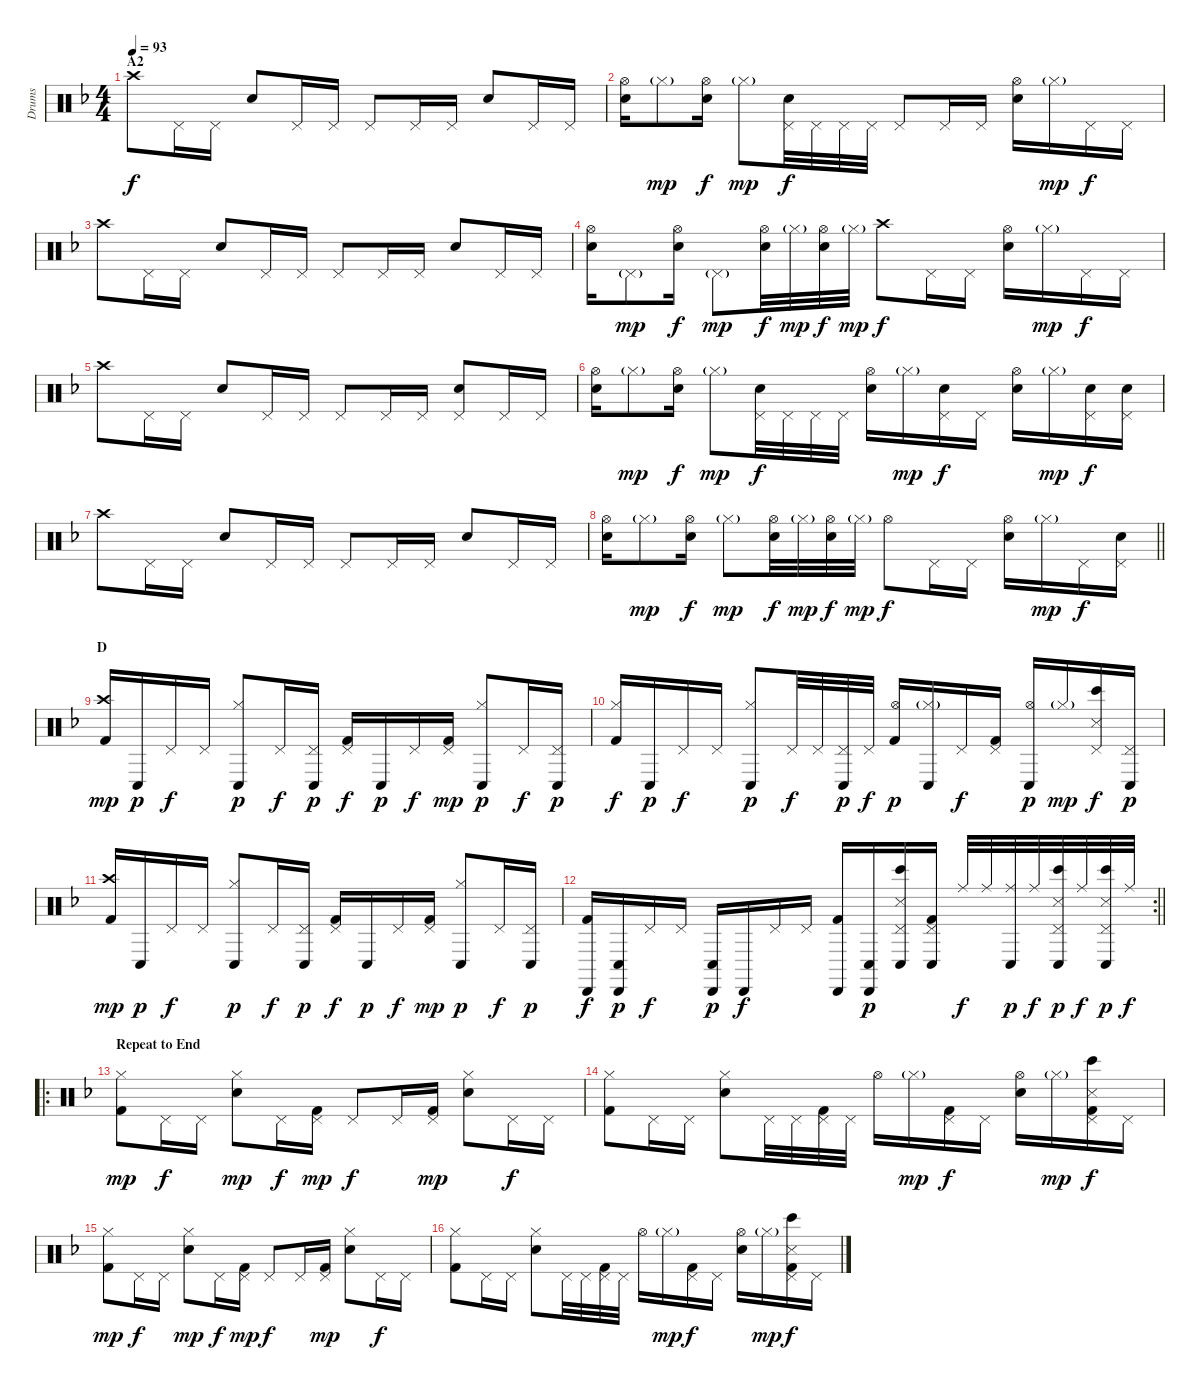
\track ("Drums" "Drums") {instrument percussion}
\staff {score}
\articulation defaults
\ts (4 4)
\section ("" "A2")
\tempo 93
\clef neutral
\ks f "Crash high (hit)".8{dy f} "Pedal Hi-Hat (hit)".16 "Pedal Hi-Hat (hit)".16 "Electric Snare (hit)".8 "Pedal Hi-Hat (hit)".16 "Pedal Hi-Hat (hit)".16 "Pedal Hi-Hat (hit)".8 "Pedal Hi-Hat (hit)".16 "Pedal Hi-Hat (hit)".16 "Electric Snare (hit)".8 "Pedal Hi-Hat (hit)".16 "Pedal Hi-Hat (hit)".16
|
("Hi-Hat (open)" "Electric Snare (hit)").16 "Hi-Hat (closed)"{g}.8{dy mp} ("Hi-Hat (open)" "Electric Snare (hit)").16{dy f} "Hi-Hat (closed)"{g}.8{dy mp} ("Pedal Hi-Hat (hit)" "Electric Snare (hit)").32{dy f} "Pedal Hi-Hat (hit)".32 "Pedal Hi-Hat (hit)".32 "Pedal Hi-Hat (hit)".32 "Pedal Hi-Hat (hit)".8 "Pedal Hi-Hat (hit)".16 "Pedal Hi-Hat (hit)".16 ("Hi-Hat (open)" "Electric Snare (hit)").16 "Hi-Hat (closed)"{g}.16{dy mp} "Pedal Hi-Hat (hit)".16{dy f} "Pedal Hi-Hat (hit)".16 |
"Crash high (hit)".8 "Pedal Hi-Hat (hit)".16 "Pedal Hi-Hat (hit)".16 "Electric Snare (hit)".8 "Pedal Hi-Hat (hit)".16 "Pedal Hi-Hat (hit)".16 "Pedal Hi-Hat (hit)".8 "Pedal Hi-Hat (hit)".16 "Pedal Hi-Hat (hit)".16 "Electric Snare (hit)".8 "Pedal Hi-Hat (hit)".16 "Pedal Hi-Hat (hit)".16 |
("Hi-Hat (open)" "Electric Snare (hit)").16 "Pedal Hi-Hat (hit)"{g}.8{dy mp} ("Hi-Hat (open)" "Electric Snare (hit)").16{dy f} "Pedal Hi-Hat (hit)"{g}.8{dy mp} ("Hi-Hat (open)" "Electric Snare (hit)").32{dy f} "Hi-Hat (closed)"{g}.32{dy mp} ("Hi-Hat (open)" "Electric Snare (hit)").32{dy f} "Hi-Hat (closed)"{g}.32{dy mp} "Crash high (hit)".8{dy f} "Pedal Hi-Hat (hit)".16 "Pedal Hi-Hat (hit)".16 ("Hi-Hat (open)" "Electric Snare (hit)").16 "Hi-Hat (closed)"{g}.16{dy mp} "Pedal Hi-Hat (hit)".16{dy f} "Pedal Hi-Hat (hit)".16 |
"Crash high (hit)".8 "Pedal Hi-Hat (hit)".16 "Pedal Hi-Hat (hit)".16 "Electric Snare (hit)".8 "Pedal Hi-Hat (hit)".16 "Pedal Hi-Hat (hit)".16 "Pedal Hi-Hat (hit)".8 "Pedal Hi-Hat (hit)".16 "Pedal Hi-Hat (hit)".16 ("Pedal Hi-Hat (hit)" "Electric Snare (hit)").8 "Pedal Hi-Hat (hit)".16 "Pedal Hi-Hat (hit)".16 |
("Hi-Hat (open)" "Electric Snare (hit)").16 "Hi-Hat (closed)"{g}.8{dy mp} ("Hi-Hat (open)" "Electric Snare (hit)").16{dy f} "Hi-Hat (closed)"{g}.8{dy mp} ("Pedal Hi-Hat (hit)" "Electric Snare (hit)").32{dy f} "Pedal Hi-Hat (hit)".32 "Pedal Hi-Hat (hit)".32 "Pedal Hi-Hat (hit)".32 ("Hi-Hat (open)" "Electric Snare (hit)").16 "Hi-Hat (closed)"{g}.16{dy mp} ("Pedal Hi-Hat (hit)" "Electric Snare (hit)").16{dy f} "Pedal Hi-Hat (hit)".16 ("Hi-Hat (open)" "Electric Snare (hit)").16 "Hi-Hat (closed)"{g}.16{dy mp} ("Pedal Hi-Hat (hit)" "Electric Snare (hit)").16{dy f} ("Pedal Hi-Hat (hit)" "Electric Snare (hit)").16 |
"Crash high (hit)".8 "Pedal Hi-Hat (hit)".16 "Pedal Hi-Hat (hit)".16 "Electric Snare (hit)".8 "Pedal Hi-Hat (hit)".16 "Pedal Hi-Hat (hit)".16 "Pedal Hi-Hat (hit)".8 "Pedal Hi-Hat (hit)".16 "Pedal Hi-Hat (hit)".16 "Electric Snare (hit)".8 "Pedal Hi-Hat (hit)".16 "Pedal Hi-Hat (hit)".16 |
\barLineRight lightlight
("Hi-Hat (open)" "Electric Snare (hit)").16 "Hi-Hat (closed)"{g}.8{dy mp} ("Hi-Hat (open)" "Electric Snare (hit)").16{dy f} "Hi-Hat (closed)"{g}.8{dy mp} ("Hi-Hat (open)" "Electric Snare (hit)").32{dy f} "Hi-Hat (closed)"{g}.32{dy mp} ("Hi-Hat (open)" "Electric Snare (hit)").32{dy f} "Hi-Hat (closed)"{g}.32{dy mp} "Hi-Hat (open)".8{dy f} "Pedal Hi-Hat (hit)".16 "Pedal Hi-Hat (hit)".16 ("Hi-Hat (open)" "Electric Snare (hit)").16 "Hi-Hat (closed)"{g}.16{dy mp} "Pedal Hi-Hat (hit)".16{dy f} ("Pedal Hi-Hat (hit)" "Electric Snare (hit)").16 |
\section ("" "D")
("Crash high (hit)" "Kick (hit) 2").16{dy mp} "Conga low (hit)".16{dy p} "Pedal Hi-Hat (hit)".16{dy f} "Pedal Hi-Hat (hit)".16 ("Hi-Hat (closed)" "Conga low (hit)").8{dy p} "Pedal Hi-Hat (hit)".16{dy f} ("Pedal Hi-Hat (hit)" "Conga low (hit)").16{dy p} ("Pedal Hi-Hat (hit)" "Kick (hit) 2").16{dy f} "Conga low (hit)".16{dy p} "Pedal Hi-Hat (hit)".16{dy f} ("Pedal Hi-Hat (hit)" "Kick (hit) 2").16{dy mp} ("Hi-Hat (closed)" "Conga low (hit)").8{dy p} "Pedal Hi-Hat (hit)".16{dy f} ("Pedal Hi-Hat (hit)" "Conga low (hit)").16{dy p} |
("Hi-Hat (closed)" "Kick (hit) 2").16{dy f} "Conga low (hit)".16{dy p} "Pedal Hi-Hat (hit)".16{dy f} "Pedal Hi-Hat (hit)".16 ("Hi-Hat (closed)" "Conga low (hit)").8{dy p} "Pedal Hi-Hat (hit)".32{dy f} "Pedal Hi-Hat (hit)".32 ("Pedal Hi-Hat (hit)" "Conga low (hit)").32{dy p} "Pedal Hi-Hat (hit)".32{dy f} ("Hi-Hat (open)" "Kick (hit) 2").16{dy p} ("Hi-Hat (closed)"{g} "Conga low (hit)").16 "Pedal Hi-Hat (hit)".16{dy f} ("Pedal Hi-Hat (hit)" "Kick (hit) 2").16 ("Hi-Hat (open)" "Conga low (hit)").16{dy p} "Hi-Hat (closed)"{g}.16{dy mp} ("Pedal Hi-Hat (hit)" "Snare (side stick) 3" "Bongo High (hit)").16{dy f} ("Pedal Hi-Hat (hit)" "Conga low (hit)").16{dy p} |
("Crash high (hit)" "Kick (hit) 2").16{dy mp} "Conga low (hit)".16{dy p} "Pedal Hi-Hat (hit)".16{dy f} "Pedal Hi-Hat (hit)".16 ("Hi-Hat (closed)" "Conga low (hit)").8{dy p} "Pedal Hi-Hat (hit)".16{dy f} ("Pedal Hi-Hat (hit)" "Conga low (hit)").16{dy p} ("Pedal Hi-Hat (hit)" "Kick (hit) 2").16{dy f} "Conga low (hit)".16{dy p} "Pedal Hi-Hat (hit)".16{dy f} ("Pedal Hi-Hat (hit)" "Kick (hit) 2").16{dy mp} ("Hi-Hat (closed)" "Conga low (hit)").8{dy p} "Pedal Hi-Hat (hit)".16{dy f} ("Pedal Hi-Hat (hit)" "Conga low (hit)").16{dy p} |
\rc 2
\barLineRight lightlight
("Cabasa (hit)" "Kick (hit) 2").16{dy f} ("Cabasa (hit)" "Conga low (hit)").16{dy p} "Pedal Hi-Hat (hit)".16{dy f} "Pedal Hi-Hat (hit)".16 ("Cabasa (hit)" "Conga low (hit)").16{dy p} "Cabasa (hit)".16{dy f} "Pedal Hi-Hat (hit)".16 "Pedal Hi-Hat (hit)".16 ("Cabasa (hit)" "Kick (hit) 2").16 ("Cabasa (hit)" "Conga low (hit)").16{dy p} ("Pedal Hi-Hat (hit)" "Snare (side stick) 3" "Bongo High (hit)" "Conga low (hit)").16 ("Pedal Hi-Hat (hit)" "Kick (hit) 2" "Conga low (hit)").16 "Ride (middle)".32{dy f} "Ride (middle)".32 ("Ride (middle)" "Conga low (hit)").32{dy p} "Ride (middle)".32{dy f} ("Pedal Hi-Hat (hit)" "Snare (side stick) 3" "Bongo High (hit)" "Conga low (hit)").32{dy p} "Ride (middle)".32{dy f} ("Pedal Hi-Hat (hit)" "Snare (side stick) 3" "Bongo High (hit)" "Conga low (hit)").32{dy p} "Ride (middle)".32{dy f} |
\ro
\section ("" "Repeat to End")
("Hi-Hat (closed)" "Kick (hit) 2").8{dy mp} "Pedal Hi-Hat (hit)".16{dy f} "Pedal Hi-Hat (hit)".16 ("Hi-Hat (closed)" "Electric Snare (hit)").8{dy mp} "Pedal Hi-Hat (hit)".16{dy f} ("Pedal Hi-Hat (hit)" "Kick (hit) 2").16{dy mp} "Pedal Hi-Hat (hit)".8{dy f} "Pedal Hi-Hat (hit)".16 ("Pedal Hi-Hat (hit)" "Kick (hit) 2").16{dy mp} ("Hi-Hat (closed)" "Electric Snare (hit)").8 "Pedal Hi-Hat (hit)".16{dy f} "Pedal Hi-Hat (hit)".16 |
("Hi-Hat (closed)" "Kick (hit) 2").8 "Pedal Hi-Hat (hit)".16 "Pedal Hi-Hat (hit)".16 ("Hi-Hat (closed)" "Electric Snare (hit)").8 "Pedal Hi-Hat (hit)".32 "Pedal Hi-Hat (hit)".32 ("Pedal Hi-Hat (hit)" "Kick (hit) 2").32 "Pedal Hi-Hat (hit)".32 "Hi-Hat (open)".16 "Hi-Hat (closed)"{g}.16{dy mp} ("Pedal Hi-Hat (hit)" "Kick (hit) 2").16{dy f} "Pedal Hi-Hat (hit)".16 ("Hi-Hat (open)" "Electric Snare (hit)").16 "Hi-Hat (closed)"{g}.16{dy mp} ("Pedal Hi-Hat (hit)" "Snare (side stick) 3" "Bongo High (hit)" "Kick (hit) 2").16{dy f} "Pedal Hi-Hat (hit)".16 |
("Hi-Hat (closed)" "Kick (hit) 2").8{dy mp} "Pedal Hi-Hat (hit)".16{dy f} "Pedal Hi-Hat (hit)".16 ("Hi-Hat (closed)" "Electric Snare (hit)").8{dy mp} "Pedal Hi-Hat (hit)".16{dy f} ("Pedal Hi-Hat (hit)" "Kick (hit) 2").16{dy mp} "Pedal Hi-Hat (hit)".8{dy f} "Pedal Hi-Hat (hit)".16 ("Pedal Hi-Hat (hit)" "Kick (hit) 2").16{dy mp} ("Hi-Hat (closed)" "Electric Snare (hit)").8 "Pedal Hi-Hat (hit)".16{dy f} "Pedal Hi-Hat (hit)".16 |
("Hi-Hat (closed)" "Kick (hit) 2").8 "Pedal Hi-Hat (hit)".16 "Pedal Hi-Hat (hit)".16 ("Hi-Hat (closed)" "Electric Snare (hit)").8 "Pedal Hi-Hat (hit)".32 "Pedal Hi-Hat (hit)".32 ("Pedal Hi-Hat (hit)" "Kick (hit) 2").32 "Pedal Hi-Hat (hit)".32 "Hi-Hat (open)".16 "Hi-Hat (closed)"{g}.16{dy mp} ("Pedal Hi-Hat (hit)" "Kick (hit) 2").16{dy f} "Pedal Hi-Hat (hit)".16 ("Hi-Hat (open)" "Electric Snare (hit)").16 "Hi-Hat (closed)"{g}.16{dy mp} ("Pedal Hi-Hat (hit)" "Snare (side stick) 3" "Bongo High (hit)" "Kick (hit) 2").16{dy f} "Pedal Hi-Hat (hit)".16
